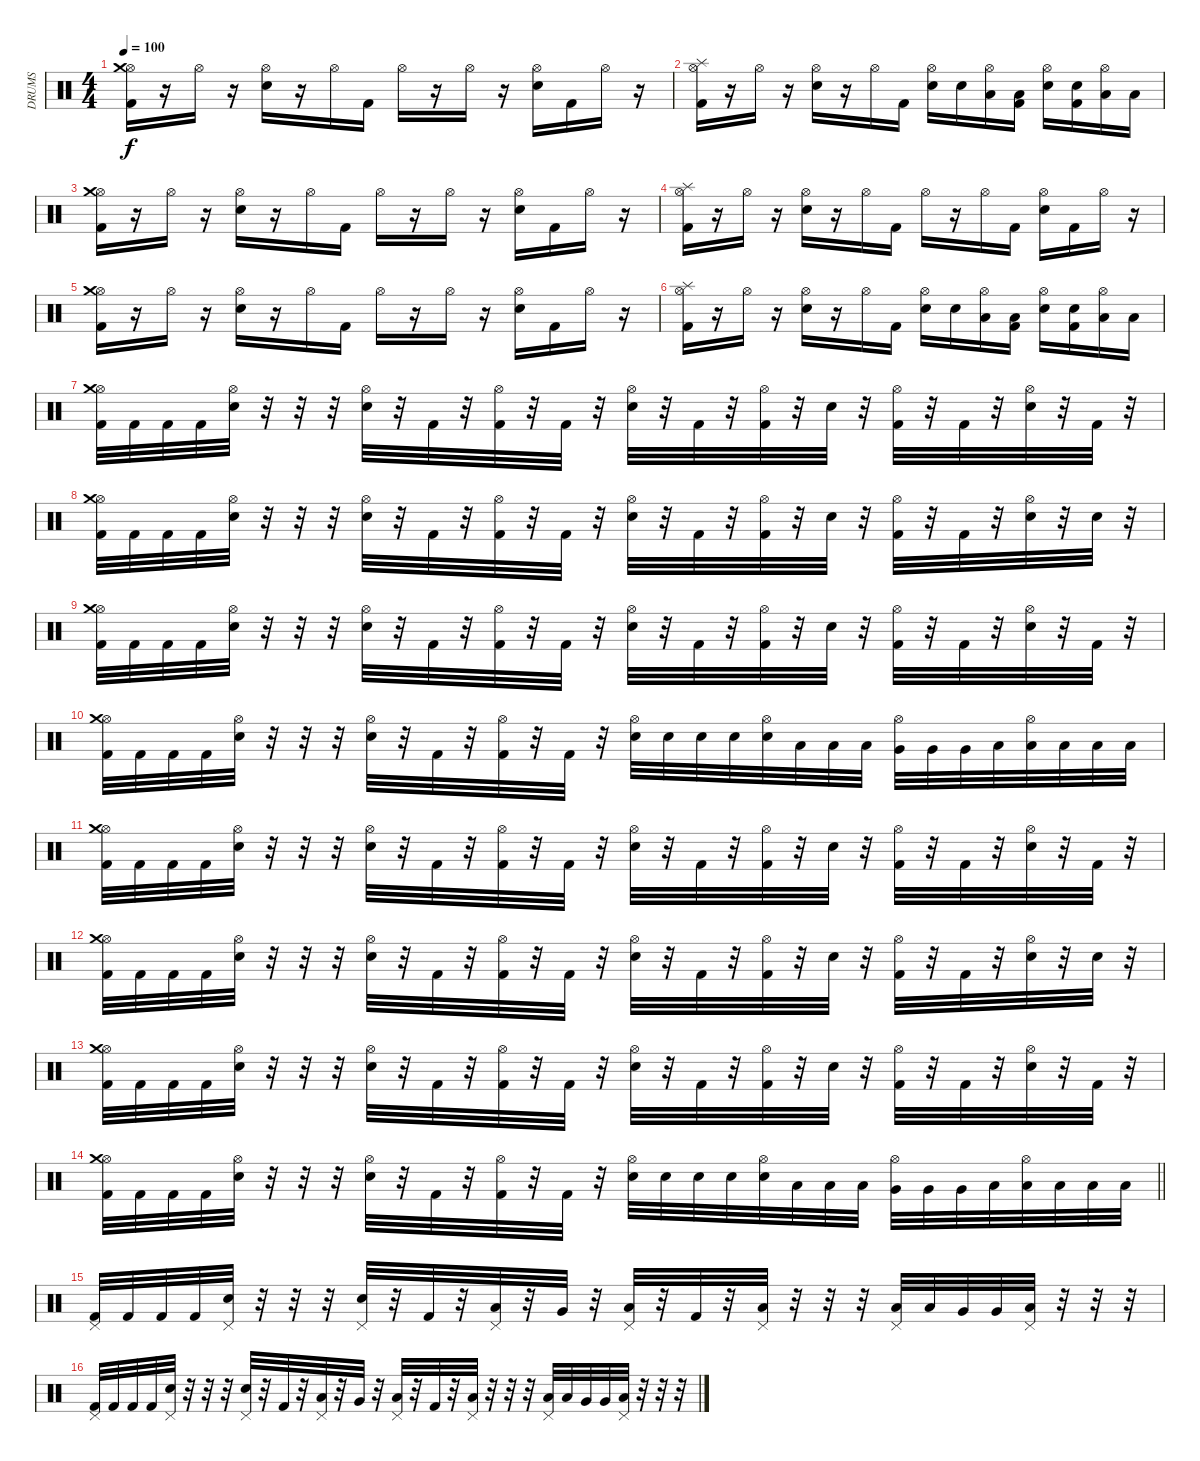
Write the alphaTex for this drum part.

\track ("DRUMS" "DRUMS") {instrument percussion}
\staff {score}
\articulation defaults
\ts (4 4)
\tempo 100
\clef neutral
\ks c
("Hi-Hat (open)" "Crash medium (hit)" "Kick (hit) 2").16{dy f} r.16 "Hi-Hat (open)".16 r.16 ("Hi-Hat (open)" "Electric Snare (hit)").16 r.16 "Hi-Hat (open)".16 "Kick (hit) 2".16 "Hi-Hat (open)".16 r.16 "Hi-Hat (open)".16 r.16 ("Hi-Hat (open)" "Electric Snare (hit)").16 "Kick (hit) 2".16 "Hi-Hat (open)".16 r.16 |
("Hi-Hat (open)" "Splash (hit)" "Kick (hit) 2").16 r.16 "Hi-Hat (open)".16 r.16 ("Hi-Hat (open)" "Electric Snare (hit)").16 r.16 "Hi-Hat (open)".16 "Kick (hit) 2".16 ("Hi-Hat (open)" "Electric Snare (hit)").16 "Electric Snare (hit)".16 ("Hi-Hat (open)" "Low Tom (hit)").16 ("Low Tom (hit)" "Kick (hit) 2").16 ("Hi-Hat (open)" "Electric Snare (hit)").16 ("Electric Snare (hit)" "Kick (hit) 2").16 ("Hi-Hat (open)" "Low Floor Tom (hit)").16 "Low Floor Tom (hit)".16 |
("Hi-Hat (open)" "Crash medium (hit)" "Kick (hit) 2").16 r.16 "Hi-Hat (open)".16 r.16 ("Hi-Hat (open)" "Electric Snare (hit)").16 r.16 "Hi-Hat (open)".16 "Kick (hit) 2".16 "Hi-Hat (open)".16 r.16 "Hi-Hat (open)".16 r.16 ("Hi-Hat (open)" "Electric Snare (hit)").16 "Kick (hit) 2".16 "Hi-Hat (open)".16 r.16 |
("Hi-Hat (open)" "Splash (hit)" "Kick (hit) 2").16 r.16 "Hi-Hat (open)".16 r.16 ("Hi-Hat (open)" "Electric Snare (hit)").16 r.16 "Hi-Hat (open)".16 "Kick (hit) 2".16 "Hi-Hat (open)".16 r.16 "Hi-Hat (open)".16 "Kick (hit) 2".16 ("Hi-Hat (open)" "Electric Snare (hit)").16 "Kick (hit) 2".16 "Hi-Hat (open)".16 r.16 |
("Hi-Hat (open)" "Crash medium (hit)" "Kick (hit) 2").16 r.16 "Hi-Hat (open)".16 r.16 ("Hi-Hat (open)" "Electric Snare (hit)").16 r.16 "Hi-Hat (open)".16 "Kick (hit) 2".16 "Hi-Hat (open)".16 r.16 "Hi-Hat (open)".16 r.16 ("Hi-Hat (open)" "Electric Snare (hit)").16 "Kick (hit) 2".16 "Hi-Hat (open)".16 r.16 |
("Hi-Hat (open)" "Splash (hit)" "Kick (hit) 2").16 r.16 "Hi-Hat (open)".16 r.16 ("Hi-Hat (open)" "Electric Snare (hit)").16 r.16 "Hi-Hat (open)".16 "Kick (hit) 2".16 ("Hi-Hat (open)" "Electric Snare (hit)").16 "Electric Snare (hit)".16 ("Hi-Hat (open)" "Low Tom (hit)").16 ("Low Tom (hit)" "Kick (hit) 2").16 ("Hi-Hat (open)" "Electric Snare (hit)").16 ("Electric Snare (hit)" "Kick (hit) 2").16 ("Hi-Hat (open)" "Low Floor Tom (hit)").16 "Low Floor Tom (hit)".16 |
("Hi-Hat (open)" "Crash medium (hit)" "Kick (hit) 2").32 "Kick (hit) 2".32 "Kick (hit) 2".32 "Kick (hit) 2".32 ("Hi-Hat (open)" "Electric Snare (hit)").32 r.32 r.32 r.32 ("Hi-Hat (open)" "Electric Snare (hit)").32 r.32 "Kick (hit) 2".32 r.32 ("Hi-Hat (open)" "Kick (hit) 2").32 r.32 "Kick (hit) 2".32 r.32 ("Hi-Hat (open)" "Electric Snare (hit)").32 r.32 "Kick (hit) 2".32 r.32 ("Hi-Hat (open)" "Kick (hit) 2").32 r.32 "Electric Snare (hit)".32 r.32 ("Hi-Hat (open)" "Kick (hit) 2").32 r.32 "Kick (hit) 2".32 r.32 ("Hi-Hat (open)" "Electric Snare (hit)").32 r.32 "Kick (hit) 2".32 r.32 |
("Hi-Hat (open)" "Crash medium (hit)" "Kick (hit) 2").32 "Kick (hit) 2".32 "Kick (hit) 2".32 "Kick (hit) 2".32 ("Hi-Hat (open)" "Electric Snare (hit)").32 r.32 r.32 r.32 ("Hi-Hat (open)" "Electric Snare (hit)").32 r.32 "Kick (hit) 2".32 r.32 ("Hi-Hat (open)" "Kick (hit) 2").32 r.32 "Kick (hit) 2".32 r.32 ("Hi-Hat (open)" "Electric Snare (hit)").32 r.32 "Kick (hit) 2".32 r.32 ("Hi-Hat (open)" "Kick (hit) 2").32 r.32 "Electric Snare (hit)".32 r.32 ("Hi-Hat (open)" "Kick (hit) 2").32 r.32 "Kick (hit) 2".32 r.32 ("Hi-Hat (open)" "Electric Snare (hit)").32 r.32 "Electric Snare (hit)".32 r.32 |
("Hi-Hat (open)" "Crash medium (hit)" "Kick (hit) 2").32 "Kick (hit) 2".32 "Kick (hit) 2".32 "Kick (hit) 2".32 ("Hi-Hat (open)" "Electric Snare (hit)").32 r.32 r.32 r.32 ("Hi-Hat (open)" "Electric Snare (hit)").32 r.32 "Kick (hit) 2".32 r.32 ("Hi-Hat (open)" "Kick (hit) 2").32 r.32 "Kick (hit) 2".32 r.32 ("Hi-Hat (open)" "Electric Snare (hit)").32 r.32 "Kick (hit) 2".32 r.32 ("Hi-Hat (open)" "Kick (hit) 2").32 r.32 "Electric Snare (hit)".32 r.32 ("Hi-Hat (open)" "Kick (hit) 2").32 r.32 "Kick (hit) 2".32 r.32 ("Hi-Hat (open)" "Electric Snare (hit)").32 r.32 "Kick (hit) 2".32 r.32 |
("Hi-Hat (open)" "Crash medium (hit)" "Kick (hit) 2").32 "Kick (hit) 2".32 "Kick (hit) 2".32 "Kick (hit) 2".32 ("Hi-Hat (open)" "Electric Snare (hit)").32 r.32 r.32 r.32 ("Hi-Hat (open)" "Electric Snare (hit)").32 r.32 "Kick (hit) 2".32 r.32 ("Hi-Hat (open)" "Kick (hit) 2").32 r.32 "Kick (hit) 2".32 r.32 ("Hi-Hat (open)" "Electric Snare (hit)").32 "Electric Snare (hit)".32 "Electric Snare (hit)".32 "Electric Snare (hit)".32 ("Hi-Hat (open)" "Electric Snare (hit)").32 "Low Tom (hit)".32 "Low Tom (hit)".32 "Low Tom (hit)".32 ("Hi-Hat (open)" "Very Low Tom (hit)").32 "Very Low Tom (hit)".32 "Very Low Tom (hit)".32 "Low Floor Tom (hit)".32 ("Hi-Hat (open)" "Low Floor Tom (hit)").32 "Low Floor Tom (hit)".32 "Low Floor Tom (hit)".32 "Low Floor Tom (hit)".32 |
("Hi-Hat (open)" "Crash medium (hit)" "Kick (hit) 2").32 "Kick (hit) 2".32 "Kick (hit) 2".32 "Kick (hit) 2".32 ("Hi-Hat (open)" "Electric Snare (hit)").32 r.32 r.32 r.32 ("Hi-Hat (open)" "Electric Snare (hit)").32 r.32 "Kick (hit) 2".32 r.32 ("Hi-Hat (open)" "Kick (hit) 2").32 r.32 "Kick (hit) 2".32 r.32 ("Hi-Hat (open)" "Electric Snare (hit)").32 r.32 "Kick (hit) 2".32 r.32 ("Hi-Hat (open)" "Kick (hit) 2").32 r.32 "Electric Snare (hit)".32 r.32 ("Hi-Hat (open)" "Kick (hit) 2").32 r.32 "Kick (hit) 2".32 r.32 ("Hi-Hat (open)" "Electric Snare (hit)").32 r.32 "Kick (hit) 2".32 r.32 |
("Hi-Hat (open)" "Crash medium (hit)" "Kick (hit) 2").32 "Kick (hit) 2".32 "Kick (hit) 2".32 "Kick (hit) 2".32 ("Hi-Hat (open)" "Electric Snare (hit)").32 r.32 r.32 r.32 ("Hi-Hat (open)" "Electric Snare (hit)").32 r.32 "Kick (hit) 2".32 r.32 ("Hi-Hat (open)" "Kick (hit) 2").32 r.32 "Kick (hit) 2".32 r.32 ("Hi-Hat (open)" "Electric Snare (hit)").32 r.32 "Kick (hit) 2".32 r.32 ("Hi-Hat (open)" "Kick (hit) 2").32 r.32 "Electric Snare (hit)".32 r.32 ("Hi-Hat (open)" "Kick (hit) 2").32 r.32 "Kick (hit) 2".32 r.32 ("Hi-Hat (open)" "Electric Snare (hit)").32 r.32 "Electric Snare (hit)".32 r.32 |
("Hi-Hat (open)" "Crash medium (hit)" "Kick (hit) 2").32 "Kick (hit) 2".32 "Kick (hit) 2".32 "Kick (hit) 2".32 ("Hi-Hat (open)" "Electric Snare (hit)").32 r.32 r.32 r.32 ("Hi-Hat (open)" "Electric Snare (hit)").32 r.32 "Kick (hit) 2".32 r.32 ("Hi-Hat (open)" "Kick (hit) 2").32 r.32 "Kick (hit) 2".32 r.32 ("Hi-Hat (open)" "Electric Snare (hit)").32 r.32 "Kick (hit) 2".32 r.32 ("Hi-Hat (open)" "Kick (hit) 2").32 r.32 "Electric Snare (hit)".32 r.32 ("Hi-Hat (open)" "Kick (hit) 2").32 r.32 "Kick (hit) 2".32 r.32 ("Hi-Hat (open)" "Electric Snare (hit)").32 r.32 "Kick (hit) 2".32 r.32 |
\barLineRight lightlight
("Hi-Hat (open)" "Crash medium (hit)" "Kick (hit) 2").32 "Kick (hit) 2".32 "Kick (hit) 2".32 "Kick (hit) 2".32 ("Hi-Hat (open)" "Electric Snare (hit)").32 r.32 r.32 r.32 ("Hi-Hat (open)" "Electric Snare (hit)").32 r.32 "Kick (hit) 2".32 r.32 ("Hi-Hat (open)" "Kick (hit) 2").32 r.32 "Kick (hit) 2".32 r.32 ("Hi-Hat (open)" "Electric Snare (hit)").32 "Electric Snare (hit)".32 "Electric Snare (hit)".32 "Electric Snare (hit)".32 ("Hi-Hat (open)" "Electric Snare (hit)").32 "Low Tom (hit)".32 "Low Tom (hit)".32 "Low Tom (hit)".32 ("Hi-Hat (open)" "Very Low Tom (hit)").32 "Very Low Tom (hit)".32 "Very Low Tom (hit)".32 "Low Floor Tom (hit)".32 ("Hi-Hat (open)" "Low Floor Tom (hit)").32 "Low Floor Tom (hit)".32 "Low Floor Tom (hit)".32 "Low Floor Tom (hit)".32 |
("Pedal Hi-Hat (hit)" "Kick (hit) 2").32 "Kick (hit) 2".32 "Kick (hit) 2".32 "Kick (hit) 2".32 ("Pedal Hi-Hat (hit)" "Electric Snare (hit)").32 r.32 r.32 r.32 ("Pedal Hi-Hat (hit)" "Electric Snare (hit)").32 r.32 "Kick (hit) 2".32 r.32 ("Pedal Hi-Hat (hit)" "Low Tom (hit)").32 r.32 "Very Low Tom (hit)".32 r.32 ("Pedal Hi-Hat (hit)" "Low Floor Tom (hit)").32 r.32 "Kick (hit) 2".32 r.32 ("Pedal Hi-Hat (hit)" "Low Floor Tom (hit)").32 r.32 r.32 r.32 ("Pedal Hi-Hat (hit)" "Low Tom (hit)").32 "Low Tom (hit)".32 "Very Low Tom (hit)".32 "Very Low Tom (hit)".32 ("Pedal Hi-Hat (hit)" "Low Floor Tom (hit)").32 r.32 r.32 r.32 |
("Pedal Hi-Hat (hit)" "Kick (hit) 2").32 "Kick (hit) 2".32 "Kick (hit) 2".32 "Kick (hit) 2".32 ("Pedal Hi-Hat (hit)" "Electric Snare (hit)").32 r.32 r.32 r.32 ("Pedal Hi-Hat (hit)" "Electric Snare (hit)").32 r.32 "Kick (hit) 2".32 r.32 ("Pedal Hi-Hat (hit)" "Low Tom (hit)").32 r.32 "Very Low Tom (hit)".32 r.32 ("Pedal Hi-Hat (hit)" "Low Floor Tom (hit)").32 r.32 "Kick (hit) 2".32 r.32 ("Pedal Hi-Hat (hit)" "Low Floor Tom (hit)").32 r.32 r.32 r.32 ("Pedal Hi-Hat (hit)" "Low Tom (hit)").32 "Low Tom (hit)".32 "Very Low Tom (hit)".32 "Very Low Tom (hit)".32 ("Pedal Hi-Hat (hit)" "Low Floor Tom (hit)").32 r.32 r.32 r.32
